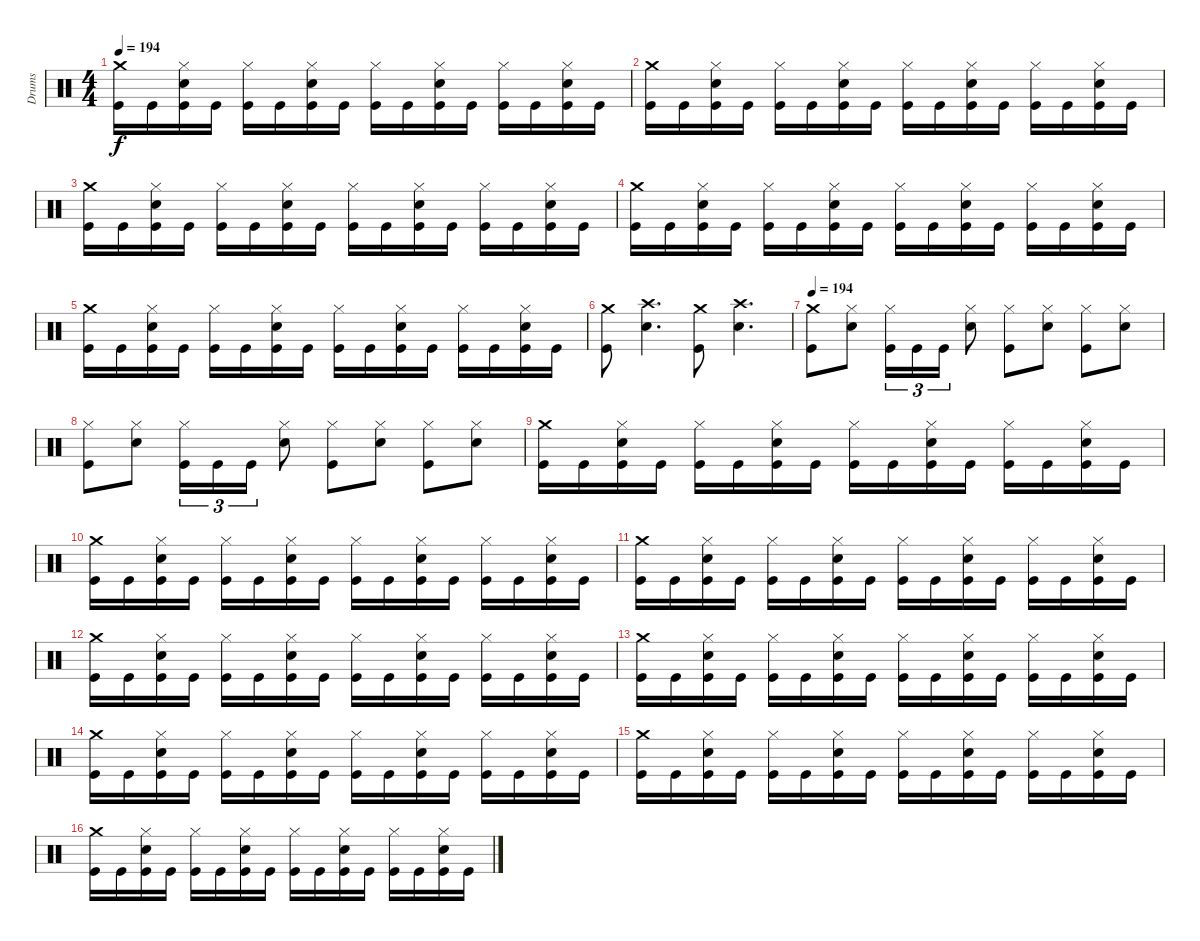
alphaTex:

\track ("Drums" "Drums") {instrument percussion}
\staff {score}
\articulation defaults
\ts (4 4)
\tempo 194
\clef neutral
\ks c
("Crash medium (hit)" "Kick (hit)").16{dy f} "Kick (hit)".16 ("Hi-Hat (closed)" "Snare (hit) 2" "Kick (hit)").16 "Kick (hit)".16 ("Hi-Hat (closed)" "Kick (hit)").16 "Kick (hit)".16 ("Hi-Hat (closed)" "Snare (hit) 2" "Kick (hit)").16 "Kick (hit)".16 ("Hi-Hat (closed)" "Kick (hit)").16 "Kick (hit)".16 ("Hi-Hat (closed)" "Snare (hit) 2" "Kick (hit)").16 "Kick (hit)".16 ("Hi-Hat (closed)" "Kick (hit)").16 "Kick (hit)".16 ("Hi-Hat (closed)" "Snare (hit) 2" "Kick (hit)").16 "Kick (hit)".16 |
("Crash medium (hit)" "Kick (hit)").16 "Kick (hit)".16 ("Hi-Hat (closed)" "Snare (hit) 2" "Kick (hit)").16 "Kick (hit)".16 ("Hi-Hat (closed)" "Kick (hit)").16 "Kick (hit)".16 ("Hi-Hat (closed)" "Snare (hit) 2" "Kick (hit)").16 "Kick (hit)".16 ("Hi-Hat (closed)" "Kick (hit)").16 "Kick (hit)".16 ("Hi-Hat (closed)" "Snare (hit) 2" "Kick (hit)").16 "Kick (hit)".16 ("Hi-Hat (closed)" "Kick (hit)").16 "Kick (hit)".16 ("Hi-Hat (closed)" "Snare (hit) 2" "Kick (hit)").16 "Kick (hit)".16 |
("Crash medium (hit)" "Kick (hit)").16 "Kick (hit)".16 ("Hi-Hat (closed)" "Snare (hit) 2" "Kick (hit)").16 "Kick (hit)".16 ("Hi-Hat (closed)" "Kick (hit)").16 "Kick (hit)".16 ("Hi-Hat (closed)" "Snare (hit) 2" "Kick (hit)").16 "Kick (hit)".16 ("Hi-Hat (closed)" "Kick (hit)").16 "Kick (hit)".16 ("Hi-Hat (closed)" "Snare (hit) 2" "Kick (hit)").16 "Kick (hit)".16 ("Hi-Hat (closed)" "Kick (hit)").16 "Kick (hit)".16 ("Hi-Hat (closed)" "Snare (hit) 2" "Kick (hit)").16 "Kick (hit)".16 |
("Crash medium (hit)" "Kick (hit)").16 "Kick (hit)".16 ("Hi-Hat (closed)" "Snare (hit) 2" "Kick (hit)").16 "Kick (hit)".16 ("Hi-Hat (closed)" "Kick (hit)").16 "Kick (hit)".16 ("Hi-Hat (closed)" "Snare (hit) 2" "Kick (hit)").16 "Kick (hit)".16 ("Hi-Hat (closed)" "Kick (hit)").16 "Kick (hit)".16 ("Hi-Hat (closed)" "Snare (hit) 2" "Kick (hit)").16 "Kick (hit)".16 ("Hi-Hat (closed)" "Kick (hit)").16 "Kick (hit)".16 ("Hi-Hat (closed)" "Snare (hit) 2" "Kick (hit)").16 "Kick (hit)".16 |
("Crash medium (hit)" "Kick (hit)").16 "Kick (hit)".16 ("Hi-Hat (closed)" "Snare (hit) 2" "Kick (hit)").16 "Kick (hit)".16 ("Hi-Hat (closed)" "Kick (hit)").16 "Kick (hit)".16 ("Hi-Hat (closed)" "Snare (hit) 2" "Kick (hit)").16 "Kick (hit)".16 ("Hi-Hat (closed)" "Kick (hit)").16 "Kick (hit)".16 ("Hi-Hat (closed)" "Snare (hit) 2" "Kick (hit)").16 "Kick (hit)".16 ("Hi-Hat (closed)" "Kick (hit)").16 "Kick (hit)".16 ("Hi-Hat (closed)" "Snare (hit) 2" "Kick (hit)").16 "Kick (hit)".16 |
("Crash medium (hit)" "Kick (hit)").8 ("Crash high (hit)" "Snare (hit) 2").4{d} ("Crash medium (hit)" "Kick (hit)").8 ("Crash high (hit)" "Snare (hit) 2").4{d} |
\tempo 194
("Crash medium (hit)" "Kick (hit)").8 ("Hi-Hat (closed)" "Snare (hit) 2").8 ("Hi-Hat (closed)" "Kick (hit)").16{tu (3 2)} "Kick (hit)".16{tu (3 2)} "Kick (hit)".16{tu (3 2)} ("Hi-Hat (closed)" "Snare (hit) 2").8 ("Hi-Hat (closed)" "Kick (hit)").8 ("Hi-Hat (closed)" "Snare (hit) 2").8 ("Hi-Hat (closed)" "Kick (hit)").8 ("Hi-Hat (closed)" "Snare (hit) 2").8 |
("Hi-Hat (closed)" "Kick (hit)").8 ("Hi-Hat (closed)" "Snare (hit) 2").8 ("Hi-Hat (closed)" "Kick (hit)").16{tu (3 2)} "Kick (hit)".16{tu (3 2)} "Kick (hit)".16{tu (3 2)} ("Hi-Hat (closed)" "Snare (hit) 2").8 ("Hi-Hat (closed)" "Kick (hit)").8 ("Hi-Hat (closed)" "Snare (hit) 2").8 ("Hi-Hat (closed)" "Kick (hit)").8 ("Hi-Hat (closed)" "Snare (hit) 2").8 |
("Crash medium (hit)" "Kick (hit)").16 "Kick (hit)".16 ("Hi-Hat (closed)" "Snare (hit) 2" "Kick (hit)").16 "Kick (hit)".16 ("Hi-Hat (closed)" "Kick (hit)").16 "Kick (hit)".16 ("Hi-Hat (closed)" "Snare (hit) 2" "Kick (hit)").16 "Kick (hit)".16 ("Hi-Hat (closed)" "Kick (hit)").16 "Kick (hit)".16 ("Hi-Hat (closed)" "Snare (hit) 2" "Kick (hit)").16 "Kick (hit)".16 ("Hi-Hat (closed)" "Kick (hit)").16 "Kick (hit)".16 ("Hi-Hat (closed)" "Snare (hit) 2" "Kick (hit)").16 "Kick (hit)".16 |
("Crash medium (hit)" "Kick (hit)").16 "Kick (hit)".16 ("Hi-Hat (closed)" "Snare (hit) 2" "Kick (hit)").16 "Kick (hit)".16 ("Hi-Hat (closed)" "Kick (hit)").16 "Kick (hit)".16 ("Hi-Hat (closed)" "Snare (hit) 2" "Kick (hit)").16 "Kick (hit)".16 ("Hi-Hat (closed)" "Kick (hit)").16 "Kick (hit)".16 ("Hi-Hat (closed)" "Snare (hit) 2" "Kick (hit)").16 "Kick (hit)".16 ("Hi-Hat (closed)" "Kick (hit)").16 "Kick (hit)".16 ("Hi-Hat (closed)" "Snare (hit) 2" "Kick (hit)").16 "Kick (hit)".16 |
("Crash medium (hit)" "Kick (hit)").16 "Kick (hit)".16 ("Hi-Hat (closed)" "Snare (hit) 2" "Kick (hit)").16 "Kick (hit)".16 ("Hi-Hat (closed)" "Kick (hit)").16 "Kick (hit)".16 ("Hi-Hat (closed)" "Snare (hit) 2" "Kick (hit)").16 "Kick (hit)".16 ("Hi-Hat (closed)" "Kick (hit)").16 "Kick (hit)".16 ("Hi-Hat (closed)" "Snare (hit) 2" "Kick (hit)").16 "Kick (hit)".16 ("Hi-Hat (closed)" "Kick (hit)").16 "Kick (hit)".16 ("Hi-Hat (closed)" "Snare (hit) 2" "Kick (hit)").16 "Kick (hit)".16 |
("Crash medium (hit)" "Kick (hit)").16 "Kick (hit)".16 ("Hi-Hat (closed)" "Snare (hit) 2" "Kick (hit)").16 "Kick (hit)".16 ("Hi-Hat (closed)" "Kick (hit)").16 "Kick (hit)".16 ("Hi-Hat (closed)" "Snare (hit) 2" "Kick (hit)").16 "Kick (hit)".16 ("Hi-Hat (closed)" "Kick (hit)").16 "Kick (hit)".16 ("Hi-Hat (closed)" "Snare (hit) 2" "Kick (hit)").16 "Kick (hit)".16 ("Hi-Hat (closed)" "Kick (hit)").16 "Kick (hit)".16 ("Hi-Hat (closed)" "Snare (hit) 2" "Kick (hit)").16 "Kick (hit)".16 |
("Crash medium (hit)" "Kick (hit)").16 "Kick (hit)".16 ("Hi-Hat (closed)" "Snare (hit) 2" "Kick (hit)").16 "Kick (hit)".16 ("Hi-Hat (closed)" "Kick (hit)").16 "Kick (hit)".16 ("Hi-Hat (closed)" "Snare (hit) 2" "Kick (hit)").16 "Kick (hit)".16 ("Hi-Hat (closed)" "Kick (hit)").16 "Kick (hit)".16 ("Hi-Hat (closed)" "Snare (hit) 2" "Kick (hit)").16 "Kick (hit)".16 ("Hi-Hat (closed)" "Kick (hit)").16 "Kick (hit)".16 ("Hi-Hat (closed)" "Snare (hit) 2" "Kick (hit)").16 "Kick (hit)".16 |
("Crash medium (hit)" "Kick (hit)").16 "Kick (hit)".16 ("Hi-Hat (closed)" "Snare (hit) 2" "Kick (hit)").16 "Kick (hit)".16 ("Hi-Hat (closed)" "Kick (hit)").16 "Kick (hit)".16 ("Hi-Hat (closed)" "Snare (hit) 2" "Kick (hit)").16 "Kick (hit)".16 ("Hi-Hat (closed)" "Kick (hit)").16 "Kick (hit)".16 ("Hi-Hat (closed)" "Snare (hit) 2" "Kick (hit)").16 "Kick (hit)".16 ("Hi-Hat (closed)" "Kick (hit)").16 "Kick (hit)".16 ("Hi-Hat (closed)" "Snare (hit) 2" "Kick (hit)").16 "Kick (hit)".16 |
("Crash medium (hit)" "Kick (hit)").16 "Kick (hit)".16 ("Hi-Hat (closed)" "Snare (hit) 2" "Kick (hit)").16 "Kick (hit)".16 ("Hi-Hat (closed)" "Kick (hit)").16 "Kick (hit)".16 ("Hi-Hat (closed)" "Snare (hit) 2" "Kick (hit)").16 "Kick (hit)".16 ("Hi-Hat (closed)" "Kick (hit)").16 "Kick (hit)".16 ("Hi-Hat (closed)" "Snare (hit) 2" "Kick (hit)").16 "Kick (hit)".16 ("Hi-Hat (closed)" "Kick (hit)").16 "Kick (hit)".16 ("Hi-Hat (closed)" "Snare (hit) 2" "Kick (hit)").16 "Kick (hit)".16 |
("Crash medium (hit)" "Kick (hit)").16 "Kick (hit)".16 ("Hi-Hat (closed)" "Snare (hit) 2" "Kick (hit)").16 "Kick (hit)".16 ("Hi-Hat (closed)" "Kick (hit)").16 "Kick (hit)".16 ("Hi-Hat (closed)" "Snare (hit) 2" "Kick (hit)").16 "Kick (hit)".16 ("Hi-Hat (closed)" "Kick (hit)").16 "Kick (hit)".16 ("Hi-Hat (closed)" "Snare (hit) 2" "Kick (hit)").16 "Kick (hit)".16 ("Hi-Hat (closed)" "Kick (hit)").16 "Kick (hit)".16 ("Hi-Hat (closed)" "Snare (hit) 2" "Kick (hit)").16 "Kick (hit)".16
